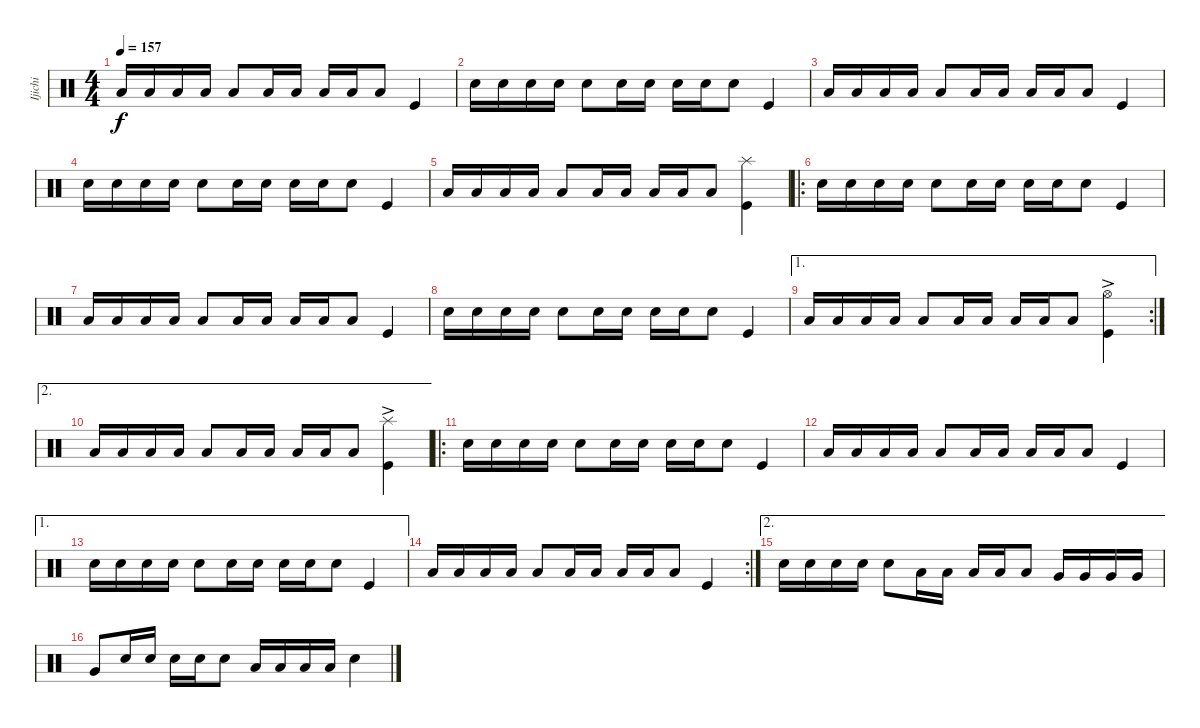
\track ("Ijichi" "Ijichi") {instrument percussion}
\staff {score}
\articulation defaults
\ts (4 4)
\tempo 157
\clef neutral
\ks c "Low Tom (hit)".16{dy f} "Low Tom (hit)".16 "Low Tom (hit)".16 "Low Tom (hit)".16 "Low Tom (hit)".8 "Low Tom (hit)".16 "Low Tom (hit)".16 "Low Tom (hit)".16 "Low Tom (hit)".16 "Low Tom (hit)".8 "Kick (hit)".4
|
"Snare (hit) 2".16 "Snare (hit) 2".16 "Snare (hit) 2".16 "Snare (hit) 2".16 "Snare (hit) 2".8 "Snare (hit) 2".16 "Snare (hit) 2".16 "Snare (hit) 2".16 "Snare (hit) 2".16 "Snare (hit) 2".8 "Kick (hit)".4 |
"Low Tom (hit)".16 "Low Tom (hit)".16 "Low Tom (hit)".16 "Low Tom (hit)".16 "Low Tom (hit)".8 "Low Tom (hit)".16 "Low Tom (hit)".16 "Low Tom (hit)".16 "Low Tom (hit)".16 "Low Tom (hit)".8 "Kick (hit)".4 |
"Snare (hit) 2".16 "Snare (hit) 2".16 "Snare (hit) 2".16 "Snare (hit) 2".16 "Snare (hit) 2".8 "Snare (hit) 2".16 "Snare (hit) 2".16 "Snare (hit) 2".16 "Snare (hit) 2".16 "Snare (hit) 2".8 "Kick (hit)".4 |
"Low Tom (hit)".16 "Low Tom (hit)".16 "Low Tom (hit)".16 "Low Tom (hit)".16 "Low Tom (hit)".8 "Low Tom (hit)".16 "Low Tom (hit)".16 "Low Tom (hit)".16 "Low Tom (hit)".16 "Low Tom (hit)".8 ("Splash (hit)" "Kick (hit)").4 |
\ro "Snare (hit) 2".16 "Snare (hit) 2".16 "Snare (hit) 2".16 "Snare (hit) 2".16 "Snare (hit) 2".8 "Snare (hit) 2".16 "Snare (hit) 2".16 "Snare (hit) 2".16 "Snare (hit) 2".16 "Snare (hit) 2".8 "Kick (hit)".4
|
"Low Tom (hit)".16 "Low Tom (hit)".16 "Low Tom (hit)".16 "Low Tom (hit)".16 "Low Tom (hit)".8 "Low Tom (hit)".16 "Low Tom (hit)".16 "Low Tom (hit)".16 "Low Tom (hit)".16 "Low Tom (hit)".8 "Kick (hit)".4 |
"Snare (hit) 2".16 "Snare (hit) 2".16 "Snare (hit) 2".16 "Snare (hit) 2".16 "Snare (hit) 2".8 "Snare (hit) 2".16 "Snare (hit) 2".16 "Snare (hit) 2".16 "Snare (hit) 2".16 "Snare (hit) 2".8 "Kick (hit)".4 |
\ae 1
\rc 2 "Low Tom (hit)".16 "Low Tom (hit)".16 "Low Tom (hit)".16 "Low Tom (hit)".16 "Low Tom (hit)".8 "Low Tom (hit)".16 "Low Tom (hit)".16 "Low Tom (hit)".16 "Low Tom (hit)".16 "Low Tom (hit)".8
("Hi-Hat (open)"{ac} "Kick (hit)").4 |
\ae 2 "Low Tom (hit)".16 "Low Tom (hit)".16 "Low Tom (hit)".16 "Low Tom (hit)".16 "Low Tom (hit)".8 "Low Tom (hit)".16 "Low Tom (hit)".16 "Low Tom (hit)".16 "Low Tom (hit)".16 "Low Tom (hit)".8
("Splash (hit)"{ac} "Kick (hit)").4 |
\ro "Snare (hit) 2".16 "Snare (hit) 2".16 "Snare (hit) 2".16 "Snare (hit) 2".16 "Snare (hit) 2".8 "Snare (hit) 2".16 "Snare (hit) 2".16 "Snare (hit) 2".16 "Snare (hit) 2".16 "Snare (hit) 2".8 "Kick (hit)".4
|
"Low Tom (hit)".16 "Low Tom (hit)".16 "Low Tom (hit)".16 "Low Tom (hit)".16 "Low Tom (hit)".8 "Low Tom (hit)".16 "Low Tom (hit)".16 "Low Tom (hit)".16 "Low Tom (hit)".16 "Low Tom (hit)".8 "Kick (hit)".4 |
\ae 1 "Snare (hit) 2".16 "Snare (hit) 2".16 "Snare (hit) 2".16 "Snare (hit) 2".16 "Snare (hit) 2".8 "Snare (hit) 2".16 "Snare (hit) 2".16 "Snare (hit) 2".16 "Snare (hit) 2".16 "Snare (hit) 2".8 "Kick (hit)".4
|
\rc 2 "Low Tom (hit)".16 "Low Tom (hit)".16 "Low Tom (hit)".16 "Low Tom (hit)".16 "Low Tom (hit)".8 "Low Tom (hit)".16 "Low Tom (hit)".16 "Low Tom (hit)".16 "Low Tom (hit)".16 "Low Tom (hit)".8 "Kick (hit)".4
|
\ae 2 "Snare (hit) 2".16 "Snare (hit) 2".16 "Snare (hit) 2".16 "Snare (hit) 2".16 "Snare (hit) 2".8 "Low Tom (hit)".16 "Low Tom (hit)".16 "Low Tom (hit)".16 "Low Tom (hit)".16 "Low Tom (hit)".8 "Very Low Tom (hit)".16 "Very Low Tom (hit)".16 "Very Low Tom (hit)".16 "Very Low Tom (hit)".16
|
"Very Low Tom (hit)".8 "Snare (hit) 2".16 "Snare (hit) 2".16 "Snare (hit) 2".16 "Snare (hit) 2".16 "Snare (hit) 2".8 "Low Tom (hit)".16 "Low Tom (hit)".16 "Low Tom (hit)".16 "Low Tom (hit)".16 "Snare (hit) 2".4
